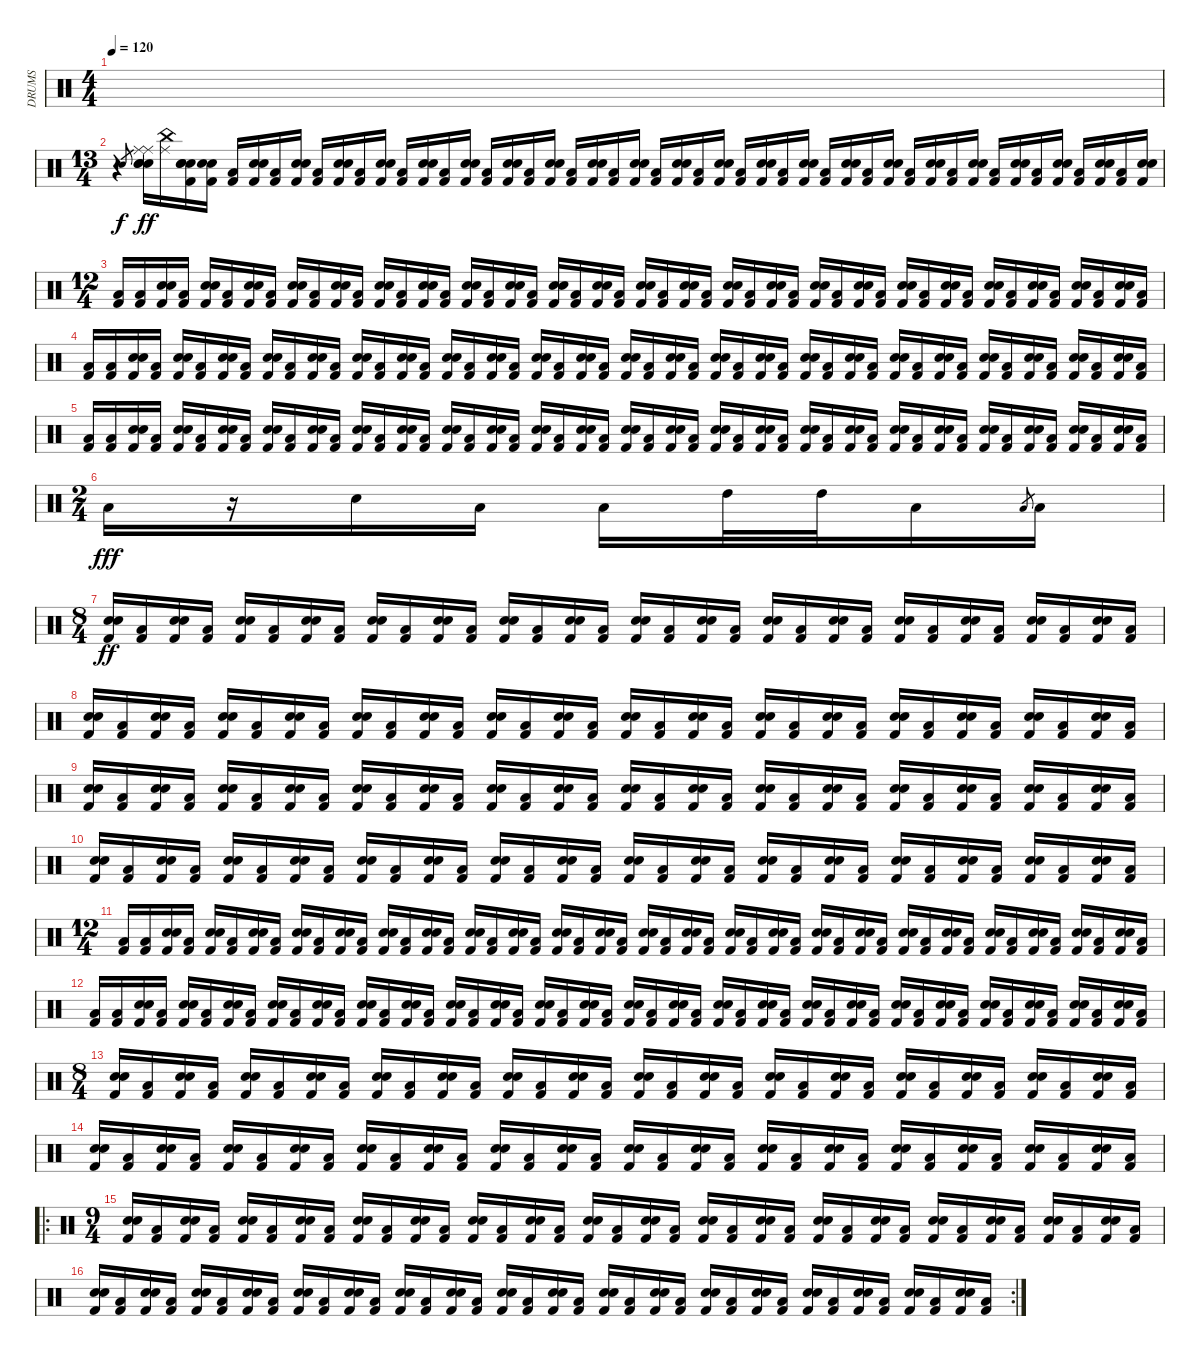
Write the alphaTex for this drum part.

\track ("DRUMS" "DRUMS") {instrument percussion}
\staff {score}
\articulation defaults
\ts (4 4)
\tempo 120
\clef neutral
\ks c
|
\ts (13 4)
r.4 "Electric Snare (hit)"{h}.8{gr} ("Electric Snare (hit)" "Electric Snare (hit)" "Electric Snare (hit)" "Ride (middle)" "Ride (middle)").16{dy ff} ("Ride (middle)" "China (hit)").16 ("Electric Snare (hit)" "Electric Snare (hit)" "Snare (hit) 2" "Kick (hit) 2").16 ("Electric Snare (hit)" "Hand Clap (hit)" "Kick (hit) 2").16 ("Low Tom (hit)" "Kick (hit) 2").16 ("Electric Snare (hit)" "Hand Clap (hit)" "Kick (hit) 2").16 ("Low Tom (hit)" "Kick (hit) 2").16 ("Electric Snare (hit)" "Hand Clap (hit)" "Kick (hit) 2").16 ("Low Tom (hit)" "Kick (hit) 2").16 ("Electric Snare (hit)" "Hand Clap (hit)" "Kick (hit) 2").16 ("Low Tom (hit)" "Kick (hit) 2").16 ("Electric Snare (hit)" "Hand Clap (hit)" "Kick (hit) 2").16 ("Low Tom (hit)" "Kick (hit) 2").16 ("Electric Snare (hit)" "Hand Clap (hit)" "Kick (hit) 2").16 ("Low Tom (hit)" "Kick (hit) 2").16 ("Electric Snare (hit)" "Hand Clap (hit)" "Kick (hit) 2").16 ("Low Tom (hit)" "Kick (hit) 2").16 ("Electric Snare (hit)" "Hand Clap (hit)" "Kick (hit) 2").16 ("Low Tom (hit)" "Kick (hit) 2").16 ("Electric Snare (hit)" "Hand Clap (hit)" "Kick (hit) 2").16 ("Low Tom (hit)" "Kick (hit) 2").16 ("Electric Snare (hit)" "Hand Clap (hit)" "Kick (hit) 2").16 ("Low Tom (hit)" "Kick (hit) 2").16 ("Electric Snare (hit)" "Hand Clap (hit)" "Kick (hit) 2").16 ("Low Tom (hit)" "Kick (hit) 2").16 ("Electric Snare (hit)" "Hand Clap (hit)" "Kick (hit) 2").16 ("Low Tom (hit)" "Kick (hit) 2").16 ("Electric Snare (hit)" "Hand Clap (hit)" "Kick (hit) 2").16 ("Low Tom (hit)" "Kick (hit) 2").16 ("Electric Snare (hit)" "Hand Clap (hit)" "Kick (hit) 2").16 ("Low Tom (hit)" "Kick (hit) 2").16 ("Electric Snare (hit)" "Hand Clap (hit)" "Kick (hit) 2").16 ("Low Tom (hit)" "Kick (hit) 2").16 ("Electric Snare (hit)" "Hand Clap (hit)" "Kick (hit) 2").16 ("Low Tom (hit)" "Kick (hit) 2").16 ("Electric Snare (hit)" "Hand Clap (hit)" "Kick (hit) 2").16 ("Low Tom (hit)" "Kick (hit) 2").16 ("Electric Snare (hit)" "Hand Clap (hit)" "Kick (hit) 2").16 ("Low Tom (hit)" "Kick (hit) 2").16 ("Electric Snare (hit)" "Hand Clap (hit)" "Kick (hit) 2").16 ("Low Tom (hit)" "Kick (hit) 2").16 ("Electric Snare (hit)" "Hand Clap (hit)" "Kick (hit) 2").16 ("Low Tom (hit)" "Kick (hit) 2").16 ("Electric Snare (hit)" "Hand Clap (hit)" "Kick (hit) 2").16 ("Low Tom (hit)" "Kick (hit) 2").16 ("Electric Snare (hit)" "Hand Clap (hit)" "Kick (hit) 2").16 ("Low Tom (hit)" "Kick (hit) 2").16 ("Electric Snare (hit)" "Hand Clap (hit)" "Kick (hit) 2").16 |
\ts (12 4)
("Low Tom (hit)" "Kick (hit) 2").16 ("Low Tom (hit)" "Kick (hit) 2").16 ("Electric Snare (hit)" "Hand Clap (hit)" "Kick (hit) 2").16 ("Low Tom (hit)" "Kick (hit) 2").16 ("Electric Snare (hit)" "Hand Clap (hit)" "Kick (hit) 2").16 ("Low Tom (hit)" "Kick (hit) 2").16 ("Electric Snare (hit)" "Hand Clap (hit)" "Kick (hit) 2").16 ("Low Tom (hit)" "Kick (hit) 2").16 ("Electric Snare (hit)" "Hand Clap (hit)" "Kick (hit) 2").16 ("Low Tom (hit)" "Kick (hit) 2").16 ("Electric Snare (hit)" "Hand Clap (hit)" "Kick (hit) 2").16 ("Low Tom (hit)" "Kick (hit) 2").16 ("Electric Snare (hit)" "Hand Clap (hit)" "Kick (hit) 2").16 ("Low Tom (hit)" "Kick (hit) 2").16 ("Electric Snare (hit)" "Hand Clap (hit)" "Kick (hit) 2").16 ("Low Tom (hit)" "Kick (hit) 2").16 ("Electric Snare (hit)" "Hand Clap (hit)" "Kick (hit) 2").16 ("Low Tom (hit)" "Kick (hit) 2").16 ("Electric Snare (hit)" "Hand Clap (hit)" "Kick (hit) 2").16 ("Low Tom (hit)" "Kick (hit) 2").16 ("Electric Snare (hit)" "Hand Clap (hit)" "Kick (hit) 2").16 ("Low Tom (hit)" "Kick (hit) 2").16 ("Electric Snare (hit)" "Hand Clap (hit)" "Kick (hit) 2").16 ("Low Tom (hit)" "Kick (hit) 2").16 ("Electric Snare (hit)" "Hand Clap (hit)" "Kick (hit) 2").16 ("Low Tom (hit)" "Kick (hit) 2").16 ("Electric Snare (hit)" "Hand Clap (hit)" "Kick (hit) 2").16 ("Low Tom (hit)" "Kick (hit) 2").16 ("Electric Snare (hit)" "Hand Clap (hit)" "Kick (hit) 2").16 ("Low Tom (hit)" "Kick (hit) 2").16 ("Electric Snare (hit)" "Hand Clap (hit)" "Kick (hit) 2").16 ("Low Tom (hit)" "Kick (hit) 2").16 ("Electric Snare (hit)" "Hand Clap (hit)" "Kick (hit) 2").16 ("Low Tom (hit)" "Kick (hit) 2").16 ("Electric Snare (hit)" "Hand Clap (hit)" "Kick (hit) 2").16 ("Low Tom (hit)" "Kick (hit) 2").16 ("Electric Snare (hit)" "Hand Clap (hit)" "Kick (hit) 2").16 ("Low Tom (hit)" "Kick (hit) 2").16 ("Electric Snare (hit)" "Hand Clap (hit)" "Kick (hit) 2").16 ("Low Tom (hit)" "Kick (hit) 2").16 ("Electric Snare (hit)" "Hand Clap (hit)" "Kick (hit) 2").16 ("Low Tom (hit)" "Kick (hit) 2").16 ("Electric Snare (hit)" "Hand Clap (hit)" "Kick (hit) 2").16 ("Low Tom (hit)" "Kick (hit) 2").16 ("Electric Snare (hit)" "Hand Clap (hit)" "Kick (hit) 2").16 ("Low Tom (hit)" "Kick (hit) 2").16 ("Electric Snare (hit)" "Hand Clap (hit)" "Kick (hit) 2").16 ("Low Tom (hit)" "Kick (hit) 2").16 |
("Low Tom (hit)" "Kick (hit) 2").16 ("Low Tom (hit)" "Kick (hit) 2").16 ("Electric Snare (hit)" "Hand Clap (hit)" "Kick (hit) 2").16 ("Low Tom (hit)" "Kick (hit) 2").16 ("Electric Snare (hit)" "Hand Clap (hit)" "Kick (hit) 2").16 ("Low Tom (hit)" "Kick (hit) 2").16 ("Electric Snare (hit)" "Hand Clap (hit)" "Kick (hit) 2").16 ("Low Tom (hit)" "Kick (hit) 2").16 ("Electric Snare (hit)" "Hand Clap (hit)" "Kick (hit) 2").16 ("Low Tom (hit)" "Kick (hit) 2").16 ("Electric Snare (hit)" "Hand Clap (hit)" "Kick (hit) 2").16 ("Low Tom (hit)" "Kick (hit) 2").16 ("Electric Snare (hit)" "Hand Clap (hit)" "Kick (hit) 2").16 ("Low Tom (hit)" "Kick (hit) 2").16 ("Electric Snare (hit)" "Hand Clap (hit)" "Kick (hit) 2").16 ("Low Tom (hit)" "Kick (hit) 2").16 ("Electric Snare (hit)" "Hand Clap (hit)" "Kick (hit) 2").16 ("Low Tom (hit)" "Kick (hit) 2").16 ("Electric Snare (hit)" "Hand Clap (hit)" "Kick (hit) 2").16 ("Low Tom (hit)" "Kick (hit) 2").16 ("Electric Snare (hit)" "Hand Clap (hit)" "Kick (hit) 2").16 ("Low Tom (hit)" "Kick (hit) 2").16 ("Electric Snare (hit)" "Hand Clap (hit)" "Kick (hit) 2").16 ("Low Tom (hit)" "Kick (hit) 2").16 ("Electric Snare (hit)" "Hand Clap (hit)" "Kick (hit) 2").16 ("Low Tom (hit)" "Kick (hit) 2").16 ("Electric Snare (hit)" "Hand Clap (hit)" "Kick (hit) 2").16 ("Low Tom (hit)" "Kick (hit) 2").16 ("Electric Snare (hit)" "Hand Clap (hit)" "Kick (hit) 2").16 ("Low Tom (hit)" "Kick (hit) 2").16 ("Electric Snare (hit)" "Hand Clap (hit)" "Kick (hit) 2").16 ("Low Tom (hit)" "Kick (hit) 2").16 ("Electric Snare (hit)" "Hand Clap (hit)" "Kick (hit) 2").16 ("Low Tom (hit)" "Kick (hit) 2").16 ("Electric Snare (hit)" "Hand Clap (hit)" "Kick (hit) 2").16 ("Low Tom (hit)" "Kick (hit) 2").16 ("Electric Snare (hit)" "Hand Clap (hit)" "Kick (hit) 2").16 ("Low Tom (hit)" "Kick (hit) 2").16 ("Electric Snare (hit)" "Hand Clap (hit)" "Kick (hit) 2").16 ("Low Tom (hit)" "Kick (hit) 2").16 ("Electric Snare (hit)" "Hand Clap (hit)" "Kick (hit) 2").16 ("Low Tom (hit)" "Kick (hit) 2").16 ("Electric Snare (hit)" "Hand Clap (hit)" "Kick (hit) 2").16 ("Low Tom (hit)" "Kick (hit) 2").16 ("Electric Snare (hit)" "Hand Clap (hit)" "Kick (hit) 2").16 ("Low Tom (hit)" "Kick (hit) 2").16 ("Electric Snare (hit)" "Hand Clap (hit)" "Kick (hit) 2").16 ("Low Tom (hit)" "Kick (hit) 2").16 |
("Low Tom (hit)" "Kick (hit) 2").16 ("Low Tom (hit)" "Kick (hit) 2").16 ("Electric Snare (hit)" "Hand Clap (hit)" "Kick (hit) 2").16 ("Low Tom (hit)" "Kick (hit) 2").16 ("Electric Snare (hit)" "Hand Clap (hit)" "Kick (hit) 2").16 ("Low Tom (hit)" "Kick (hit) 2").16 ("Electric Snare (hit)" "Hand Clap (hit)" "Kick (hit) 2").16 ("Low Tom (hit)" "Kick (hit) 2").16 ("Electric Snare (hit)" "Hand Clap (hit)" "Kick (hit) 2").16 ("Low Tom (hit)" "Kick (hit) 2").16 ("Electric Snare (hit)" "Hand Clap (hit)" "Kick (hit) 2").16 ("Low Tom (hit)" "Kick (hit) 2").16 ("Electric Snare (hit)" "Hand Clap (hit)" "Kick (hit) 2").16 ("Low Tom (hit)" "Kick (hit) 2").16 ("Electric Snare (hit)" "Hand Clap (hit)" "Kick (hit) 2").16 ("Low Tom (hit)" "Kick (hit) 2").16 ("Electric Snare (hit)" "Hand Clap (hit)" "Kick (hit) 2").16 ("Low Tom (hit)" "Kick (hit) 2").16 ("Electric Snare (hit)" "Hand Clap (hit)" "Kick (hit) 2").16 ("Low Tom (hit)" "Kick (hit) 2").16 ("Electric Snare (hit)" "Hand Clap (hit)" "Kick (hit) 2").16 ("Low Tom (hit)" "Kick (hit) 2").16 ("Electric Snare (hit)" "Hand Clap (hit)" "Kick (hit) 2").16 ("Low Tom (hit)" "Kick (hit) 2").16 ("Electric Snare (hit)" "Hand Clap (hit)" "Kick (hit) 2").16 ("Low Tom (hit)" "Kick (hit) 2").16 ("Electric Snare (hit)" "Hand Clap (hit)" "Kick (hit) 2").16 ("Low Tom (hit)" "Kick (hit) 2").16 ("Electric Snare (hit)" "Hand Clap (hit)" "Kick (hit) 2").16 ("Low Tom (hit)" "Kick (hit) 2").16 ("Electric Snare (hit)" "Hand Clap (hit)" "Kick (hit) 2").16 ("Low Tom (hit)" "Kick (hit) 2").16 ("Electric Snare (hit)" "Hand Clap (hit)" "Kick (hit) 2").16 ("Low Tom (hit)" "Kick (hit) 2").16 ("Electric Snare (hit)" "Hand Clap (hit)" "Kick (hit) 2").16 ("Low Tom (hit)" "Kick (hit) 2").16 ("Electric Snare (hit)" "Hand Clap (hit)" "Kick (hit) 2").16 ("Low Tom (hit)" "Kick (hit) 2").16 ("Electric Snare (hit)" "Hand Clap (hit)" "Kick (hit) 2").16 ("Low Tom (hit)" "Kick (hit) 2").16 ("Electric Snare (hit)" "Hand Clap (hit)" "Kick (hit) 2").16 ("Low Tom (hit)" "Kick (hit) 2").16 ("Electric Snare (hit)" "Hand Clap (hit)" "Kick (hit) 2").16 ("Low Tom (hit)" "Kick (hit) 2").16 ("Electric Snare (hit)" "Hand Clap (hit)" "Kick (hit) 2").16 ("Low Tom (hit)" "Kick (hit) 2").16 ("Electric Snare (hit)" "Hand Clap (hit)" "Kick (hit) 2").16 ("Low Tom (hit)" "Kick (hit) 2").16 |
\ts (2 4)
"Low Tom (hit)".16{dy fff} r.16 "Electric Snare (hit)".16 "Low Tom (hit)".16 "Low Tom (hit)".16 "High Tom (hit)".32 "High Tom (hit)".32 "Low Tom (hit)".16 "Low Tom (hit)"{h}.8{gr} "Low Tom (hit)".16 |
\ts (8 4)
("Electric Snare (hit)" "Hand Clap (hit)" "Kick (hit) 2").16{dy ff} ("Low Tom (hit)" "Kick (hit) 2").16 ("Electric Snare (hit)" "Hand Clap (hit)" "Kick (hit) 2").16 ("Low Tom (hit)" "Kick (hit) 2").16 ("Electric Snare (hit)" "Hand Clap (hit)" "Kick (hit) 2").16 ("Low Tom (hit)" "Kick (hit) 2").16 ("Electric Snare (hit)" "Hand Clap (hit)" "Kick (hit) 2").16 ("Low Tom (hit)" "Kick (hit) 2").16 ("Electric Snare (hit)" "Hand Clap (hit)" "Kick (hit) 2").16 ("Low Tom (hit)" "Kick (hit) 2").16 ("Electric Snare (hit)" "Hand Clap (hit)" "Kick (hit) 2").16 ("Low Tom (hit)" "Kick (hit) 2").16 ("Electric Snare (hit)" "Hand Clap (hit)" "Kick (hit) 2").16 ("Low Tom (hit)" "Kick (hit) 2").16 ("Electric Snare (hit)" "Hand Clap (hit)" "Kick (hit) 2").16 ("Low Tom (hit)" "Kick (hit) 2").16 ("Electric Snare (hit)" "Hand Clap (hit)" "Kick (hit) 2").16 ("Low Tom (hit)" "Kick (hit) 2").16 ("Electric Snare (hit)" "Hand Clap (hit)" "Kick (hit) 2").16 ("Low Tom (hit)" "Kick (hit) 2").16 ("Electric Snare (hit)" "Hand Clap (hit)" "Kick (hit) 2").16 ("Low Tom (hit)" "Kick (hit) 2").16 ("Electric Snare (hit)" "Hand Clap (hit)" "Kick (hit) 2").16 ("Low Tom (hit)" "Kick (hit) 2").16 ("Electric Snare (hit)" "Hand Clap (hit)" "Kick (hit) 2").16 ("Low Tom (hit)" "Kick (hit) 2").16 ("Electric Snare (hit)" "Hand Clap (hit)" "Kick (hit) 2").16 ("Low Tom (hit)" "Kick (hit) 2").16 ("Electric Snare (hit)" "Hand Clap (hit)" "Kick (hit) 2").16 ("Low Tom (hit)" "Kick (hit) 2").16 ("Electric Snare (hit)" "Hand Clap (hit)" "Kick (hit) 2").16 ("Low Tom (hit)" "Kick (hit) 2").16 |
("Electric Snare (hit)" "Hand Clap (hit)" "Kick (hit) 2").16 ("Low Tom (hit)" "Kick (hit) 2").16 ("Electric Snare (hit)" "Hand Clap (hit)" "Kick (hit) 2").16 ("Low Tom (hit)" "Kick (hit) 2").16 ("Electric Snare (hit)" "Hand Clap (hit)" "Kick (hit) 2").16 ("Low Tom (hit)" "Kick (hit) 2").16 ("Electric Snare (hit)" "Hand Clap (hit)" "Kick (hit) 2").16 ("Low Tom (hit)" "Kick (hit) 2").16 ("Electric Snare (hit)" "Hand Clap (hit)" "Kick (hit) 2").16 ("Low Tom (hit)" "Kick (hit) 2").16 ("Electric Snare (hit)" "Hand Clap (hit)" "Kick (hit) 2").16 ("Low Tom (hit)" "Kick (hit) 2").16 ("Electric Snare (hit)" "Hand Clap (hit)" "Kick (hit) 2").16 ("Low Tom (hit)" "Kick (hit) 2").16 ("Electric Snare (hit)" "Hand Clap (hit)" "Kick (hit) 2").16 ("Low Tom (hit)" "Kick (hit) 2").16 ("Electric Snare (hit)" "Hand Clap (hit)" "Kick (hit) 2").16 ("Low Tom (hit)" "Kick (hit) 2").16 ("Electric Snare (hit)" "Hand Clap (hit)" "Kick (hit) 2").16 ("Low Tom (hit)" "Kick (hit) 2").16 ("Electric Snare (hit)" "Hand Clap (hit)" "Kick (hit) 2").16 ("Low Tom (hit)" "Kick (hit) 2").16 ("Electric Snare (hit)" "Hand Clap (hit)" "Kick (hit) 2").16 ("Low Tom (hit)" "Kick (hit) 2").16 ("Electric Snare (hit)" "Hand Clap (hit)" "Kick (hit) 2").16 ("Low Tom (hit)" "Kick (hit) 2").16 ("Electric Snare (hit)" "Hand Clap (hit)" "Kick (hit) 2").16 ("Low Tom (hit)" "Kick (hit) 2").16 ("Electric Snare (hit)" "Hand Clap (hit)" "Kick (hit) 2").16 ("Low Tom (hit)" "Kick (hit) 2").16 ("Electric Snare (hit)" "Hand Clap (hit)" "Kick (hit) 2").16 ("Low Tom (hit)" "Kick (hit) 2").16 |
("Electric Snare (hit)" "Hand Clap (hit)" "Kick (hit) 2").16 ("Low Tom (hit)" "Kick (hit) 2").16 ("Electric Snare (hit)" "Hand Clap (hit)" "Kick (hit) 2").16 ("Low Tom (hit)" "Kick (hit) 2").16 ("Electric Snare (hit)" "Hand Clap (hit)" "Kick (hit) 2").16 ("Low Tom (hit)" "Kick (hit) 2").16 ("Electric Snare (hit)" "Hand Clap (hit)" "Kick (hit) 2").16 ("Low Tom (hit)" "Kick (hit) 2").16 ("Electric Snare (hit)" "Hand Clap (hit)" "Kick (hit) 2").16 ("Low Tom (hit)" "Kick (hit) 2").16 ("Electric Snare (hit)" "Hand Clap (hit)" "Kick (hit) 2").16 ("Low Tom (hit)" "Kick (hit) 2").16 ("Electric Snare (hit)" "Hand Clap (hit)" "Kick (hit) 2").16 ("Low Tom (hit)" "Kick (hit) 2").16 ("Electric Snare (hit)" "Hand Clap (hit)" "Kick (hit) 2").16 ("Low Tom (hit)" "Kick (hit) 2").16 ("Electric Snare (hit)" "Hand Clap (hit)" "Kick (hit) 2").16 ("Low Tom (hit)" "Kick (hit) 2").16 ("Electric Snare (hit)" "Hand Clap (hit)" "Kick (hit) 2").16 ("Low Tom (hit)" "Kick (hit) 2").16 ("Electric Snare (hit)" "Hand Clap (hit)" "Kick (hit) 2").16 ("Low Tom (hit)" "Kick (hit) 2").16 ("Electric Snare (hit)" "Hand Clap (hit)" "Kick (hit) 2").16 ("Low Tom (hit)" "Kick (hit) 2").16 ("Electric Snare (hit)" "Hand Clap (hit)" "Kick (hit) 2").16 ("Low Tom (hit)" "Kick (hit) 2").16 ("Electric Snare (hit)" "Hand Clap (hit)" "Kick (hit) 2").16 ("Low Tom (hit)" "Kick (hit) 2").16 ("Electric Snare (hit)" "Hand Clap (hit)" "Kick (hit) 2").16 ("Low Tom (hit)" "Kick (hit) 2").16 ("Electric Snare (hit)" "Hand Clap (hit)" "Kick (hit) 2").16 ("Low Tom (hit)" "Kick (hit) 2").16 |
("Electric Snare (hit)" "Hand Clap (hit)" "Kick (hit) 2").16 ("Low Tom (hit)" "Kick (hit) 2").16 ("Electric Snare (hit)" "Hand Clap (hit)" "Kick (hit) 2").16 ("Low Tom (hit)" "Kick (hit) 2").16 ("Electric Snare (hit)" "Hand Clap (hit)" "Kick (hit) 2").16 ("Low Tom (hit)" "Kick (hit) 2").16 ("Electric Snare (hit)" "Hand Clap (hit)" "Kick (hit) 2").16 ("Low Tom (hit)" "Kick (hit) 2").16 ("Electric Snare (hit)" "Hand Clap (hit)" "Kick (hit) 2").16 ("Low Tom (hit)" "Kick (hit) 2").16 ("Electric Snare (hit)" "Hand Clap (hit)" "Kick (hit) 2").16 ("Low Tom (hit)" "Kick (hit) 2").16 ("Electric Snare (hit)" "Hand Clap (hit)" "Kick (hit) 2").16 ("Low Tom (hit)" "Kick (hit) 2").16 ("Electric Snare (hit)" "Hand Clap (hit)" "Kick (hit) 2").16 ("Low Tom (hit)" "Kick (hit) 2").16 ("Electric Snare (hit)" "Hand Clap (hit)" "Kick (hit) 2").16 ("Low Tom (hit)" "Kick (hit) 2").16 ("Electric Snare (hit)" "Hand Clap (hit)" "Kick (hit) 2").16 ("Low Tom (hit)" "Kick (hit) 2").16 ("Electric Snare (hit)" "Hand Clap (hit)" "Kick (hit) 2").16 ("Low Tom (hit)" "Kick (hit) 2").16 ("Electric Snare (hit)" "Hand Clap (hit)" "Kick (hit) 2").16 ("Low Tom (hit)" "Kick (hit) 2").16 ("Electric Snare (hit)" "Hand Clap (hit)" "Kick (hit) 2").16 ("Low Tom (hit)" "Kick (hit) 2").16 ("Electric Snare (hit)" "Hand Clap (hit)" "Kick (hit) 2").16 ("Low Tom (hit)" "Kick (hit) 2").16 ("Electric Snare (hit)" "Hand Clap (hit)" "Kick (hit) 2").16 ("Low Tom (hit)" "Kick (hit) 2").16 ("Electric Snare (hit)" "Hand Clap (hit)" "Kick (hit) 2").16 ("Low Tom (hit)" "Kick (hit) 2").16 |
\ts (12 4)
("Low Tom (hit)" "Kick (hit) 2").16 ("Low Tom (hit)" "Kick (hit) 2").16 ("Electric Snare (hit)" "Hand Clap (hit)" "Kick (hit) 2").16 ("Low Tom (hit)" "Kick (hit) 2").16 ("Electric Snare (hit)" "Hand Clap (hit)" "Kick (hit) 2").16 ("Low Tom (hit)" "Kick (hit) 2").16 ("Electric Snare (hit)" "Hand Clap (hit)" "Kick (hit) 2").16 ("Low Tom (hit)" "Kick (hit) 2").16 ("Electric Snare (hit)" "Hand Clap (hit)" "Kick (hit) 2").16 ("Low Tom (hit)" "Kick (hit) 2").16 ("Electric Snare (hit)" "Hand Clap (hit)" "Kick (hit) 2").16 ("Low Tom (hit)" "Kick (hit) 2").16 ("Electric Snare (hit)" "Hand Clap (hit)" "Kick (hit) 2").16 ("Low Tom (hit)" "Kick (hit) 2").16 ("Electric Snare (hit)" "Hand Clap (hit)" "Kick (hit) 2").16 ("Low Tom (hit)" "Kick (hit) 2").16 ("Electric Snare (hit)" "Hand Clap (hit)" "Kick (hit) 2").16 ("Low Tom (hit)" "Kick (hit) 2").16 ("Electric Snare (hit)" "Hand Clap (hit)" "Kick (hit) 2").16 ("Low Tom (hit)" "Kick (hit) 2").16 ("Electric Snare (hit)" "Hand Clap (hit)" "Kick (hit) 2").16 ("Low Tom (hit)" "Kick (hit) 2").16 ("Electric Snare (hit)" "Hand Clap (hit)" "Kick (hit) 2").16 ("Low Tom (hit)" "Kick (hit) 2").16 ("Electric Snare (hit)" "Hand Clap (hit)" "Kick (hit) 2").16 ("Low Tom (hit)" "Kick (hit) 2").16 ("Electric Snare (hit)" "Hand Clap (hit)" "Kick (hit) 2").16 ("Low Tom (hit)" "Kick (hit) 2").16 ("Electric Snare (hit)" "Hand Clap (hit)" "Kick (hit) 2").16 ("Low Tom (hit)" "Kick (hit) 2").16 ("Electric Snare (hit)" "Hand Clap (hit)" "Kick (hit) 2").16 ("Low Tom (hit)" "Kick (hit) 2").16 ("Electric Snare (hit)" "Hand Clap (hit)" "Kick (hit) 2").16 ("Low Tom (hit)" "Kick (hit) 2").16 ("Electric Snare (hit)" "Hand Clap (hit)" "Kick (hit) 2").16 ("Low Tom (hit)" "Kick (hit) 2").16 ("Electric Snare (hit)" "Hand Clap (hit)" "Kick (hit) 2").16 ("Low Tom (hit)" "Kick (hit) 2").16 ("Electric Snare (hit)" "Hand Clap (hit)" "Kick (hit) 2").16 ("Low Tom (hit)" "Kick (hit) 2").16 ("Electric Snare (hit)" "Hand Clap (hit)" "Kick (hit) 2").16 ("Low Tom (hit)" "Kick (hit) 2").16 ("Electric Snare (hit)" "Hand Clap (hit)" "Kick (hit) 2").16 ("Low Tom (hit)" "Kick (hit) 2").16 ("Electric Snare (hit)" "Hand Clap (hit)" "Kick (hit) 2").16 ("Low Tom (hit)" "Kick (hit) 2").16 ("Electric Snare (hit)" "Hand Clap (hit)" "Kick (hit) 2").16 ("Low Tom (hit)" "Kick (hit) 2").16 |
("Low Tom (hit)" "Kick (hit) 2").16 ("Low Tom (hit)" "Kick (hit) 2").16 ("Electric Snare (hit)" "Hand Clap (hit)" "Kick (hit) 2").16 ("Low Tom (hit)" "Kick (hit) 2").16 ("Electric Snare (hit)" "Hand Clap (hit)" "Kick (hit) 2").16 ("Low Tom (hit)" "Kick (hit) 2").16 ("Electric Snare (hit)" "Hand Clap (hit)" "Kick (hit) 2").16 ("Low Tom (hit)" "Kick (hit) 2").16 ("Electric Snare (hit)" "Hand Clap (hit)" "Kick (hit) 2").16 ("Low Tom (hit)" "Kick (hit) 2").16 ("Electric Snare (hit)" "Hand Clap (hit)" "Kick (hit) 2").16 ("Low Tom (hit)" "Kick (hit) 2").16 ("Electric Snare (hit)" "Hand Clap (hit)" "Kick (hit) 2").16 ("Low Tom (hit)" "Kick (hit) 2").16 ("Electric Snare (hit)" "Hand Clap (hit)" "Kick (hit) 2").16 ("Low Tom (hit)" "Kick (hit) 2").16 ("Electric Snare (hit)" "Hand Clap (hit)" "Kick (hit) 2").16 ("Low Tom (hit)" "Kick (hit) 2").16 ("Electric Snare (hit)" "Hand Clap (hit)" "Kick (hit) 2").16 ("Low Tom (hit)" "Kick (hit) 2").16 ("Electric Snare (hit)" "Hand Clap (hit)" "Kick (hit) 2").16 ("Low Tom (hit)" "Kick (hit) 2").16 ("Electric Snare (hit)" "Hand Clap (hit)" "Kick (hit) 2").16 ("Low Tom (hit)" "Kick (hit) 2").16 ("Electric Snare (hit)" "Hand Clap (hit)" "Kick (hit) 2").16 ("Low Tom (hit)" "Kick (hit) 2").16 ("Electric Snare (hit)" "Hand Clap (hit)" "Kick (hit) 2").16 ("Low Tom (hit)" "Kick (hit) 2").16 ("Electric Snare (hit)" "Hand Clap (hit)" "Kick (hit) 2").16 ("Low Tom (hit)" "Kick (hit) 2").16 ("Electric Snare (hit)" "Hand Clap (hit)" "Kick (hit) 2").16 ("Low Tom (hit)" "Kick (hit) 2").16 ("Electric Snare (hit)" "Hand Clap (hit)" "Kick (hit) 2").16 ("Low Tom (hit)" "Kick (hit) 2").16 ("Electric Snare (hit)" "Hand Clap (hit)" "Kick (hit) 2").16 ("Low Tom (hit)" "Kick (hit) 2").16 ("Electric Snare (hit)" "Hand Clap (hit)" "Kick (hit) 2").16 ("Low Tom (hit)" "Kick (hit) 2").16 ("Electric Snare (hit)" "Hand Clap (hit)" "Kick (hit) 2").16 ("Low Tom (hit)" "Kick (hit) 2").16 ("Electric Snare (hit)" "Hand Clap (hit)" "Kick (hit) 2").16 ("Low Tom (hit)" "Kick (hit) 2").16 ("Electric Snare (hit)" "Hand Clap (hit)" "Kick (hit) 2").16 ("Low Tom (hit)" "Kick (hit) 2").16 ("Electric Snare (hit)" "Hand Clap (hit)" "Kick (hit) 2").16 ("Low Tom (hit)" "Kick (hit) 2").16 ("Electric Snare (hit)" "Hand Clap (hit)" "Kick (hit) 2").16 ("Low Tom (hit)" "Kick (hit) 2").16 |
\ts (8 4)
("Electric Snare (hit)" "Hand Clap (hit)" "Kick (hit) 2").16 ("Low Tom (hit)" "Kick (hit) 2").16 ("Electric Snare (hit)" "Hand Clap (hit)" "Kick (hit) 2").16 ("Low Tom (hit)" "Kick (hit) 2").16 ("Electric Snare (hit)" "Hand Clap (hit)" "Kick (hit) 2").16 ("Low Tom (hit)" "Kick (hit) 2").16 ("Electric Snare (hit)" "Hand Clap (hit)" "Kick (hit) 2").16 ("Low Tom (hit)" "Kick (hit) 2").16 ("Electric Snare (hit)" "Hand Clap (hit)" "Kick (hit) 2").16 ("Low Tom (hit)" "Kick (hit) 2").16 ("Electric Snare (hit)" "Hand Clap (hit)" "Kick (hit) 2").16 ("Low Tom (hit)" "Kick (hit) 2").16 ("Electric Snare (hit)" "Hand Clap (hit)" "Kick (hit) 2").16 ("Low Tom (hit)" "Kick (hit) 2").16 ("Electric Snare (hit)" "Hand Clap (hit)" "Kick (hit) 2").16 ("Low Tom (hit)" "Kick (hit) 2").16 ("Electric Snare (hit)" "Hand Clap (hit)" "Kick (hit) 2").16 ("Low Tom (hit)" "Kick (hit) 2").16 ("Electric Snare (hit)" "Hand Clap (hit)" "Kick (hit) 2").16 ("Low Tom (hit)" "Kick (hit) 2").16 ("Electric Snare (hit)" "Hand Clap (hit)" "Kick (hit) 2").16 ("Low Tom (hit)" "Kick (hit) 2").16 ("Electric Snare (hit)" "Hand Clap (hit)" "Kick (hit) 2").16 ("Low Tom (hit)" "Kick (hit) 2").16 ("Electric Snare (hit)" "Hand Clap (hit)" "Kick (hit) 2").16 ("Low Tom (hit)" "Kick (hit) 2").16 ("Electric Snare (hit)" "Hand Clap (hit)" "Kick (hit) 2").16 ("Low Tom (hit)" "Kick (hit) 2").16 ("Electric Snare (hit)" "Hand Clap (hit)" "Kick (hit) 2").16 ("Low Tom (hit)" "Kick (hit) 2").16 ("Electric Snare (hit)" "Hand Clap (hit)" "Kick (hit) 2").16 ("Low Tom (hit)" "Kick (hit) 2").16 |
("Electric Snare (hit)" "Hand Clap (hit)" "Kick (hit) 2").16 ("Low Tom (hit)" "Kick (hit) 2").16 ("Electric Snare (hit)" "Hand Clap (hit)" "Kick (hit) 2").16 ("Low Tom (hit)" "Kick (hit) 2").16 ("Electric Snare (hit)" "Hand Clap (hit)" "Kick (hit) 2").16 ("Low Tom (hit)" "Kick (hit) 2").16 ("Electric Snare (hit)" "Hand Clap (hit)" "Kick (hit) 2").16 ("Low Tom (hit)" "Kick (hit) 2").16 ("Electric Snare (hit)" "Hand Clap (hit)" "Kick (hit) 2").16 ("Low Tom (hit)" "Kick (hit) 2").16 ("Electric Snare (hit)" "Hand Clap (hit)" "Kick (hit) 2").16 ("Low Tom (hit)" "Kick (hit) 2").16 ("Electric Snare (hit)" "Hand Clap (hit)" "Kick (hit) 2").16 ("Low Tom (hit)" "Kick (hit) 2").16 ("Electric Snare (hit)" "Hand Clap (hit)" "Kick (hit) 2").16 ("Low Tom (hit)" "Kick (hit) 2").16 ("Electric Snare (hit)" "Hand Clap (hit)" "Kick (hit) 2").16 ("Low Tom (hit)" "Kick (hit) 2").16 ("Electric Snare (hit)" "Hand Clap (hit)" "Kick (hit) 2").16 ("Low Tom (hit)" "Kick (hit) 2").16 ("Electric Snare (hit)" "Hand Clap (hit)" "Kick (hit) 2").16 ("Low Tom (hit)" "Kick (hit) 2").16 ("Electric Snare (hit)" "Hand Clap (hit)" "Kick (hit) 2").16 ("Low Tom (hit)" "Kick (hit) 2").16 ("Electric Snare (hit)" "Hand Clap (hit)" "Kick (hit) 2").16 ("Low Tom (hit)" "Kick (hit) 2").16 ("Electric Snare (hit)" "Hand Clap (hit)" "Kick (hit) 2").16 ("Low Tom (hit)" "Kick (hit) 2").16 ("Electric Snare (hit)" "Hand Clap (hit)" "Kick (hit) 2").16 ("Low Tom (hit)" "Kick (hit) 2").16 ("Electric Snare (hit)" "Hand Clap (hit)" "Kick (hit) 2").16 ("Low Tom (hit)" "Kick (hit) 2").16 |
\ro
\ts (9 4)
("Electric Snare (hit)" "Hand Clap (hit)" "Kick (hit) 2").16 ("Low Tom (hit)" "Kick (hit) 2").16 ("Electric Snare (hit)" "Hand Clap (hit)" "Kick (hit) 2").16 ("Low Tom (hit)" "Kick (hit) 2").16 ("Electric Snare (hit)" "Hand Clap (hit)" "Kick (hit) 2").16 ("Low Tom (hit)" "Kick (hit) 2").16 ("Electric Snare (hit)" "Hand Clap (hit)" "Kick (hit) 2").16 ("Low Tom (hit)" "Kick (hit) 2").16 ("Electric Snare (hit)" "Hand Clap (hit)" "Kick (hit) 2").16 ("Low Tom (hit)" "Kick (hit) 2").16 ("Electric Snare (hit)" "Hand Clap (hit)" "Kick (hit) 2").16 ("Low Tom (hit)" "Kick (hit) 2").16 ("Electric Snare (hit)" "Hand Clap (hit)" "Kick (hit) 2").16 ("Low Tom (hit)" "Kick (hit) 2").16 ("Electric Snare (hit)" "Hand Clap (hit)" "Kick (hit) 2").16 ("Low Tom (hit)" "Kick (hit) 2").16 ("Electric Snare (hit)" "Hand Clap (hit)" "Kick (hit) 2").16 ("Low Tom (hit)" "Kick (hit) 2").16 ("Electric Snare (hit)" "Hand Clap (hit)" "Kick (hit) 2").16 ("Low Tom (hit)" "Kick (hit) 2").16 ("Electric Snare (hit)" "Hand Clap (hit)" "Kick (hit) 2").16 ("Low Tom (hit)" "Kick (hit) 2").16 ("Electric Snare (hit)" "Hand Clap (hit)" "Kick (hit) 2").16 ("Low Tom (hit)" "Kick (hit) 2").16 ("Electric Snare (hit)" "Hand Clap (hit)" "Kick (hit) 2").16 ("Low Tom (hit)" "Kick (hit) 2").16 ("Electric Snare (hit)" "Hand Clap (hit)" "Kick (hit) 2").16 ("Low Tom (hit)" "Kick (hit) 2").16 ("Electric Snare (hit)" "Hand Clap (hit)" "Kick (hit) 2").16 ("Low Tom (hit)" "Kick (hit) 2").16 ("Electric Snare (hit)" "Hand Clap (hit)" "Kick (hit) 2").16 ("Low Tom (hit)" "Kick (hit) 2").16 ("Electric Snare (hit)" "Hand Clap (hit)" "Kick (hit) 2").16 ("Low Tom (hit)" "Kick (hit) 2").16 ("Electric Snare (hit)" "Hand Clap (hit)" "Kick (hit) 2").16 ("Low Tom (hit)" "Kick (hit) 2").16 |
\rc 2
("Electric Snare (hit)" "Hand Clap (hit)" "Kick (hit) 2").16 ("Low Tom (hit)" "Kick (hit) 2").16 ("Electric Snare (hit)" "Hand Clap (hit)" "Kick (hit) 2").16 ("Low Tom (hit)" "Kick (hit) 2").16 ("Electric Snare (hit)" "Hand Clap (hit)" "Kick (hit) 2").16 ("Low Tom (hit)" "Kick (hit) 2").16 ("Electric Snare (hit)" "Hand Clap (hit)" "Kick (hit) 2").16 ("Low Tom (hit)" "Kick (hit) 2").16 ("Electric Snare (hit)" "Hand Clap (hit)" "Kick (hit) 2").16 ("Low Tom (hit)" "Kick (hit) 2").16 ("Electric Snare (hit)" "Hand Clap (hit)" "Kick (hit) 2").16 ("Low Tom (hit)" "Kick (hit) 2").16 ("Electric Snare (hit)" "Hand Clap (hit)" "Kick (hit) 2").16 ("Low Tom (hit)" "Kick (hit) 2").16 ("Electric Snare (hit)" "Hand Clap (hit)" "Kick (hit) 2").16 ("Low Tom (hit)" "Kick (hit) 2").16 ("Electric Snare (hit)" "Hand Clap (hit)" "Kick (hit) 2").16 ("Low Tom (hit)" "Kick (hit) 2").16 ("Electric Snare (hit)" "Hand Clap (hit)" "Kick (hit) 2").16 ("Low Tom (hit)" "Kick (hit) 2").16 ("Electric Snare (hit)" "Hand Clap (hit)" "Kick (hit) 2").16 ("Low Tom (hit)" "Kick (hit) 2").16 ("Electric Snare (hit)" "Hand Clap (hit)" "Kick (hit) 2").16 ("Low Tom (hit)" "Kick (hit) 2").16 ("Electric Snare (hit)" "Hand Clap (hit)" "Kick (hit) 2").16 ("Low Tom (hit)" "Kick (hit) 2").16 ("Electric Snare (hit)" "Hand Clap (hit)" "Kick (hit) 2").16 ("Low Tom (hit)" "Kick (hit) 2").16 ("Electric Snare (hit)" "Hand Clap (hit)" "Kick (hit) 2").16 ("Low Tom (hit)" "Kick (hit) 2").16 ("Electric Snare (hit)" "Hand Clap (hit)" "Kick (hit) 2").16 ("Low Tom (hit)" "Kick (hit) 2").16 ("Electric Snare (hit)" "Hand Clap (hit)" "Kick (hit) 2").16 ("Low Tom (hit)" "Kick (hit) 2").16 ("Electric Snare (hit)" "Hand Clap (hit)" "Kick (hit) 2").16 ("Low Tom (hit)" "Kick (hit) 2").16
